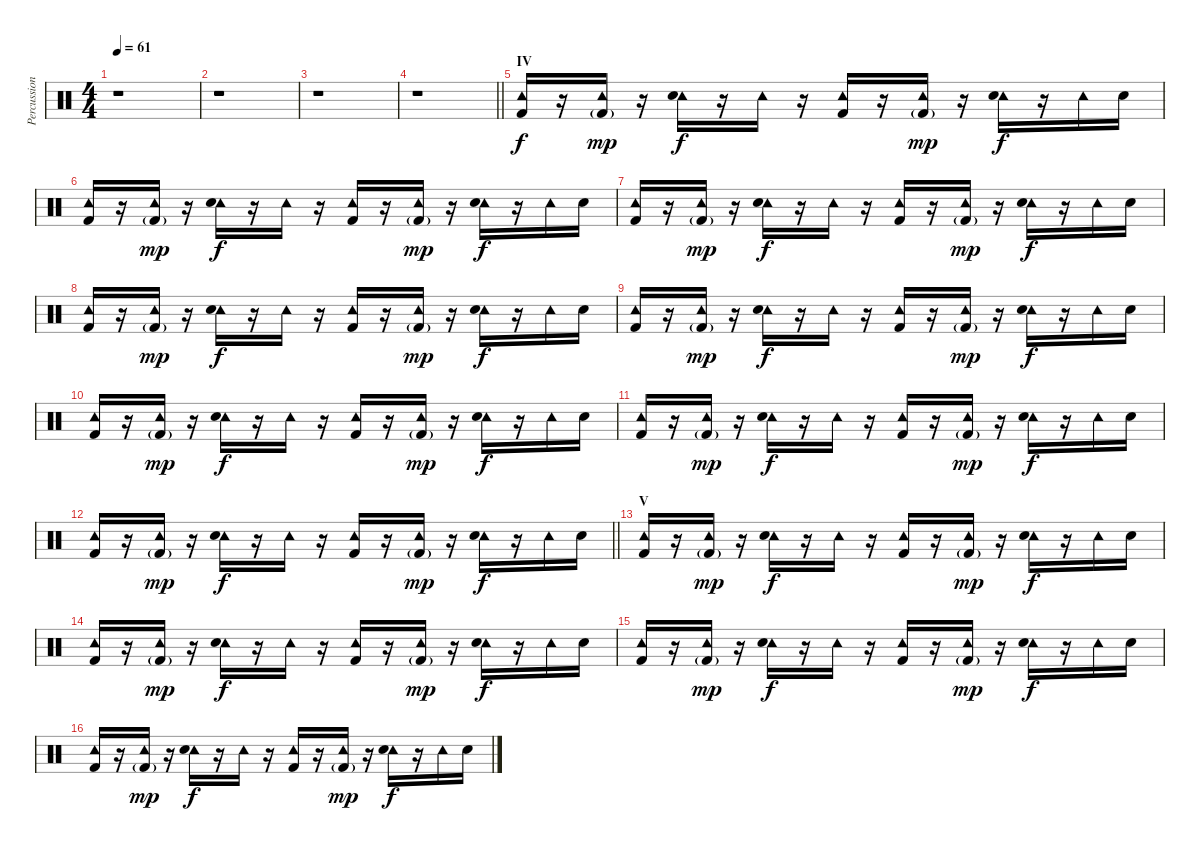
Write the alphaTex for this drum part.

\track ("Percussion" "Percussion") {instrument percussion}
\staff {score}
\articulation defaults
\ts (4 4)
\tempo 61
\clef neutral
\ks c
r.1{dy f} |
r.1 |
r.1 |
\barLineRight lightlight
r.1 |
\section ("" "IV")
("Tambourine (hit)" "Kick (hit) 2").16 r.16 ("Tambourine (hit)" "Kick (hit) 2"{g}).16{dy mp} r.16 ("Tambourine (hit)" "Hand Clap (hit)").16{dy f} r.16 "Tambourine (hit)".16 r.16 ("Tambourine (hit)" "Kick (hit) 2").16 r.16 ("Tambourine (hit)" "Kick (hit) 2"{g}).16{dy mp} r.16 ("Tambourine (hit)" "Hand Clap (hit)").16{dy f} r.16 "Tambourine (hit)".16 "Hand Clap (hit)".16 |
("Tambourine (hit)" "Kick (hit) 2").16 r.16 ("Tambourine (hit)" "Kick (hit) 2"{g}).16{dy mp} r.16 ("Tambourine (hit)" "Hand Clap (hit)").16{dy f} r.16 "Tambourine (hit)".16 r.16 ("Tambourine (hit)" "Kick (hit) 2").16 r.16 ("Tambourine (hit)" "Kick (hit) 2"{g}).16{dy mp} r.16 ("Tambourine (hit)" "Hand Clap (hit)").16{dy f} r.16 "Tambourine (hit)".16 "Hand Clap (hit)".16 |
("Tambourine (hit)" "Kick (hit) 2").16 r.16 ("Tambourine (hit)" "Kick (hit) 2"{g}).16{dy mp} r.16 ("Tambourine (hit)" "Hand Clap (hit)").16{dy f} r.16 "Tambourine (hit)".16 r.16 ("Tambourine (hit)" "Kick (hit) 2").16 r.16 ("Tambourine (hit)" "Kick (hit) 2"{g}).16{dy mp} r.16 ("Tambourine (hit)" "Hand Clap (hit)").16{dy f} r.16 "Tambourine (hit)".16 "Hand Clap (hit)".16 |
("Tambourine (hit)" "Kick (hit) 2").16 r.16 ("Tambourine (hit)" "Kick (hit) 2"{g}).16{dy mp} r.16 ("Tambourine (hit)" "Hand Clap (hit)").16{dy f} r.16 "Tambourine (hit)".16 r.16 ("Tambourine (hit)" "Kick (hit) 2").16 r.16 ("Tambourine (hit)" "Kick (hit) 2"{g}).16{dy mp} r.16 ("Tambourine (hit)" "Hand Clap (hit)").16{dy f} r.16 "Tambourine (hit)".16 "Hand Clap (hit)".16 |
("Tambourine (hit)" "Kick (hit) 2").16 r.16 ("Tambourine (hit)" "Kick (hit) 2"{g}).16{dy mp} r.16 ("Tambourine (hit)" "Hand Clap (hit)").16{dy f} r.16 "Tambourine (hit)".16 r.16 ("Tambourine (hit)" "Kick (hit) 2").16 r.16 ("Tambourine (hit)" "Kick (hit) 2"{g}).16{dy mp} r.16 ("Tambourine (hit)" "Hand Clap (hit)").16{dy f} r.16 "Tambourine (hit)".16 "Hand Clap (hit)".16 |
("Tambourine (hit)" "Kick (hit) 2").16 r.16 ("Tambourine (hit)" "Kick (hit) 2"{g}).16{dy mp} r.16 ("Tambourine (hit)" "Hand Clap (hit)").16{dy f} r.16 "Tambourine (hit)".16 r.16 ("Tambourine (hit)" "Kick (hit) 2").16 r.16 ("Tambourine (hit)" "Kick (hit) 2"{g}).16{dy mp} r.16 ("Tambourine (hit)" "Hand Clap (hit)").16{dy f} r.16 "Tambourine (hit)".16 "Hand Clap (hit)".16 |
("Tambourine (hit)" "Kick (hit) 2").16 r.16 ("Tambourine (hit)" "Kick (hit) 2"{g}).16{dy mp} r.16 ("Tambourine (hit)" "Hand Clap (hit)").16{dy f} r.16 "Tambourine (hit)".16 r.16 ("Tambourine (hit)" "Kick (hit) 2").16 r.16 ("Tambourine (hit)" "Kick (hit) 2"{g}).16{dy mp} r.16 ("Tambourine (hit)" "Hand Clap (hit)").16{dy f} r.16 "Tambourine (hit)".16 "Hand Clap (hit)".16 |
\barLineRight lightlight
("Tambourine (hit)" "Kick (hit) 2").16 r.16 ("Tambourine (hit)" "Kick (hit) 2"{g}).16{dy mp} r.16 ("Tambourine (hit)" "Hand Clap (hit)").16{dy f} r.16 "Tambourine (hit)".16 r.16 ("Tambourine (hit)" "Kick (hit) 2").16 r.16 ("Tambourine (hit)" "Kick (hit) 2"{g}).16{dy mp} r.16 ("Tambourine (hit)" "Hand Clap (hit)").16{dy f} r.16 "Tambourine (hit)".16 "Hand Clap (hit)".16 |
\section ("" "V")
("Tambourine (hit)" "Kick (hit) 2").16{volume 14} r.16 ("Tambourine (hit)" "Kick (hit) 2"{g}).16{dy mp} r.16 ("Tambourine (hit)" "Hand Clap (hit)").16{dy f} r.16 "Tambourine (hit)".16 r.16 ("Tambourine (hit)" "Kick (hit) 2").16 r.16 ("Tambourine (hit)" "Kick (hit) 2"{g}).16{dy mp} r.16 ("Tambourine (hit)" "Hand Clap (hit)").16{dy f} r.16 "Tambourine (hit)".16 "Hand Clap (hit)".16 |
("Tambourine (hit)" "Kick (hit) 2").16 r.16 ("Tambourine (hit)" "Kick (hit) 2"{g}).16{dy mp} r.16 ("Tambourine (hit)" "Hand Clap (hit)").16{dy f} r.16 "Tambourine (hit)".16 r.16 ("Tambourine (hit)" "Kick (hit) 2").16 r.16 ("Tambourine (hit)" "Kick (hit) 2"{g}).16{dy mp} r.16 ("Tambourine (hit)" "Hand Clap (hit)").16{dy f} r.16 "Tambourine (hit)".16 "Hand Clap (hit)".16 |
("Tambourine (hit)" "Kick (hit) 2").16 r.16 ("Tambourine (hit)" "Kick (hit) 2"{g}).16{dy mp} r.16 ("Tambourine (hit)" "Hand Clap (hit)").16{dy f} r.16 "Tambourine (hit)".16 r.16 ("Tambourine (hit)" "Kick (hit) 2").16 r.16 ("Tambourine (hit)" "Kick (hit) 2"{g}).16{dy mp} r.16 ("Tambourine (hit)" "Hand Clap (hit)").16{dy f} r.16 "Tambourine (hit)".16 "Hand Clap (hit)".16 |
("Tambourine (hit)" "Kick (hit) 2").16 r.16 ("Tambourine (hit)" "Kick (hit) 2"{g}).16{dy mp} r.16 ("Tambourine (hit)" "Hand Clap (hit)").16{dy f} r.16 "Tambourine (hit)".16 r.16 ("Tambourine (hit)" "Kick (hit) 2").16 r.16 ("Tambourine (hit)" "Kick (hit) 2"{g}).16{dy mp} r.16 ("Tambourine (hit)" "Hand Clap (hit)").16{dy f} r.16 "Tambourine (hit)".16 "Hand Clap (hit)".16
